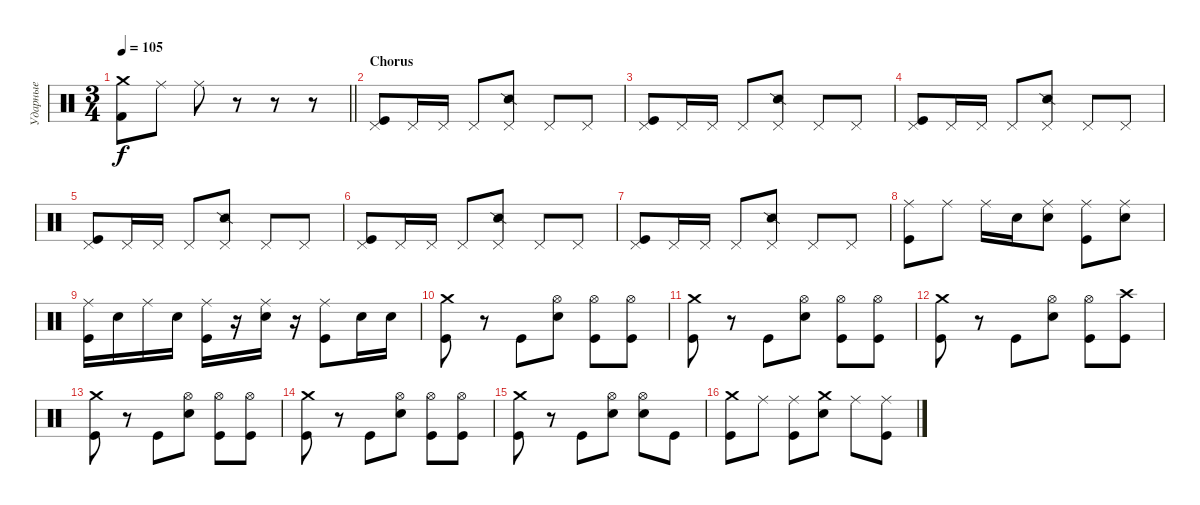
\track ("Ударные" "Ударные") {instrument percussion}
\staff {score}
\articulation defaults
\ts (3 4)
\tempo 105
\clef neutral
\barLineRight lightlight
\ks c
("Crash medium (hit)" "Kick (hit) 2").8{dy f} "Ride (middle)".8 "Ride (middle)".8 r.8 r.8 r.8 |
\section ("" "Chorus")
("Pedal Hi-Hat (hit)" "Kick (hit)").8 "Pedal Hi-Hat (hit)".16 "Pedal Hi-Hat (hit)".16 "Pedal Hi-Hat (hit)".8 ("Pedal Hi-Hat (hit)" "Snare (side stick) 2").8 "Pedal Hi-Hat (hit)".8 "Pedal Hi-Hat (hit)".8 |
("Pedal Hi-Hat (hit)" "Kick (hit)").8 "Pedal Hi-Hat (hit)".16 "Pedal Hi-Hat (hit)".16 "Pedal Hi-Hat (hit)".8 ("Pedal Hi-Hat (hit)" "Snare (side stick) 2").8 "Pedal Hi-Hat (hit)".8 "Pedal Hi-Hat (hit)".8 |
("Pedal Hi-Hat (hit)" "Kick (hit)").8 "Pedal Hi-Hat (hit)".16 "Pedal Hi-Hat (hit)".16 "Pedal Hi-Hat (hit)".8 ("Pedal Hi-Hat (hit)" "Snare (side stick) 2").8 "Pedal Hi-Hat (hit)".8 "Pedal Hi-Hat (hit)".8 |
("Pedal Hi-Hat (hit)" "Kick (hit)").8 "Pedal Hi-Hat (hit)".16 "Pedal Hi-Hat (hit)".16 "Pedal Hi-Hat (hit)".8 ("Pedal Hi-Hat (hit)" "Snare (side stick) 2").8 "Pedal Hi-Hat (hit)".8 "Pedal Hi-Hat (hit)".8 |
("Pedal Hi-Hat (hit)" "Kick (hit)").8 "Pedal Hi-Hat (hit)".16 "Pedal Hi-Hat (hit)".16 "Pedal Hi-Hat (hit)".8 ("Pedal Hi-Hat (hit)" "Snare (side stick) 2").8 "Pedal Hi-Hat (hit)".8 "Pedal Hi-Hat (hit)".8 |
("Pedal Hi-Hat (hit)" "Kick (hit)").8 "Pedal Hi-Hat (hit)".16 "Pedal Hi-Hat (hit)".16 "Pedal Hi-Hat (hit)".8 ("Pedal Hi-Hat (hit)" "Snare (side stick) 2").8 "Pedal Hi-Hat (hit)".8 "Pedal Hi-Hat (hit)".8 |
("Ride (middle)" "Kick (hit)").8 "Ride (middle)".8 "Ride (middle)".16 "Electric Snare (hit)".16 ("Ride (middle)" "Electric Snare (hit)").8 ("Ride (middle)" "Kick (hit)").8 ("Ride (middle)" "Electric Snare (hit)").8 |
("Ride (middle)" "Kick (hit)").16 "Electric Snare (hit)".16 "Ride (middle)".16 "Electric Snare (hit)".16 ("Ride (middle)" "Kick (hit)").16 r.16 ("Ride (middle)" "Electric Snare (hit)").16 r.16 ("Ride (middle)" "Kick (hit)").8 "Electric Snare (hit)".16 "Electric Snare (hit)".16 |
("Crash medium (hit)" "Kick (hit)").8 r.8 "Kick (hit)".8 ("Hi-Hat (open)" "Electric Snare (hit)").8 ("Hi-Hat (open)" "Kick (hit)").8 ("Hi-Hat (open)" "Kick (hit)").8 |
("Crash medium (hit)" "Kick (hit)").8 r.8 "Kick (hit)".8 ("Hi-Hat (open)" "Electric Snare (hit)").8 ("Hi-Hat (open)" "Kick (hit)").8 ("Hi-Hat (open)" "Kick (hit)").8 |
("Crash medium (hit)" "Kick (hit)").8 r.8 "Kick (hit)".8 ("Hi-Hat (open)" "Electric Snare (hit)").8 ("Hi-Hat (open)" "Kick (hit)").8 ("Crash high (hit)" "Kick (hit)").8 |
("Crash medium (hit)" "Kick (hit)").8 r.8 "Kick (hit)".8 ("Hi-Hat (open)" "Electric Snare (hit)").8 ("Hi-Hat (open)" "Kick (hit)").8 ("Hi-Hat (open)" "Kick (hit)").8 |
("Crash medium (hit)" "Kick (hit)").8 r.8 "Kick (hit)".8 ("Hi-Hat (open)" "Electric Snare (hit)").8 ("Hi-Hat (open)" "Kick (hit)").8 ("Hi-Hat (open)" "Kick (hit)").8 |
("Crash medium (hit)" "Kick (hit)").8 r.8 "Kick (hit)".8 ("Hi-Hat (open)" "Electric Snare (hit)").8 ("Hi-Hat (open)" "Electric Snare (hit)").8 "Kick (hit)".8 |
("Crash medium (hit)" "Kick (hit)").8 "Ride (middle)".8 ("Ride (middle)" "Kick (hit)").8 ("Crash medium (hit)" "Electric Snare (hit)").8 "Ride (middle)".8 ("Ride (middle)" "Kick (hit)").8
